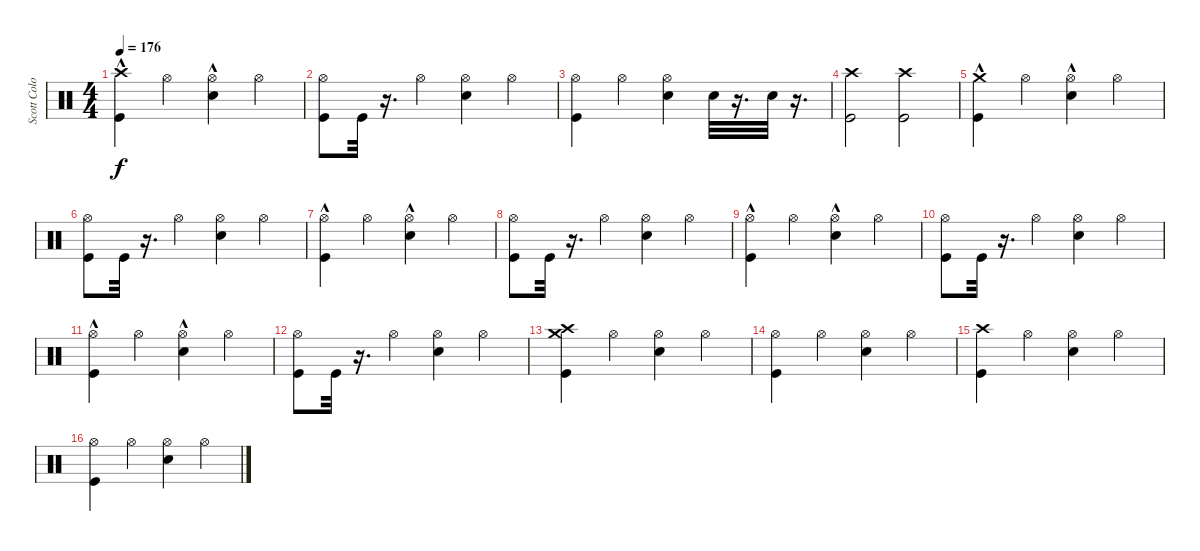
\track ("Scott Colombus" "Scott Colo") {instrument percussion}
\staff {score}
\articulation defaults
\ts (4 4)
\tempo 176
\clef neutral
\ks c
("Kick (hit)"{hac} "Crash high (hit)").4{dy f} "Hi-Hat (open)".4 ("Hi-Hat (open)" "Snare (hit) 2"{hac}).4 "Hi-Hat (open)".4 |
("Kick (hit)" "Hi-Hat (open)").8 "Kick (hit)".32 r.16{d} "Hi-Hat (open)".4 ("Hi-Hat (open)" "Snare (hit) 2").4 "Hi-Hat (open)".4 |
("Kick (hit)" "Hi-Hat (open)").4 "Hi-Hat (open)".4 ("Hi-Hat (open)" "Snare (hit) 2").4 "Snare (hit) 2".32 r.16{d} "Snare (hit) 2".32 r.16{d} |
("Crash high (hit)" "Kick (hit)").2 ("Crash high (hit)" "Kick (hit)").2 |
("Crash medium (hit)" "Kick (hit)"{hac}).4 "Hi-Hat (open)".4 ("Hi-Hat (open)" "Snare (hit) 2"{hac}).4 "Hi-Hat (open)".4 |
("Hi-Hat (open)" "Kick (hit)").8 "Kick (hit)".32 r.16{d} "Hi-Hat (open)".4 ("Hi-Hat (open)" "Snare (hit) 2").4 "Hi-Hat (open)".4 |
("Hi-Hat (open)" "Kick (hit)"{hac}).4 "Hi-Hat (open)".4 ("Hi-Hat (open)" "Snare (hit) 2"{hac}).4 "Hi-Hat (open)".4 |
("Hi-Hat (open)" "Kick (hit)").8 "Kick (hit)".32 r.16{d} "Hi-Hat (open)".4 ("Hi-Hat (open)" "Snare (hit) 2").4 "Hi-Hat (open)".4 |
("Hi-Hat (open)" "Kick (hit)"{hac}).4 "Hi-Hat (open)".4 ("Hi-Hat (open)" "Snare (hit) 2"{hac}).4 "Hi-Hat (open)".4 |
("Hi-Hat (open)" "Kick (hit)").8 "Kick (hit)".32 r.16{d} "Hi-Hat (open)".4 ("Hi-Hat (open)" "Snare (hit) 2").4 "Hi-Hat (open)".4 |
("Hi-Hat (open)" "Kick (hit)"{hac}).4 "Hi-Hat (open)".4 ("Hi-Hat (open)" "Snare (hit) 2"{hac}).4 "Hi-Hat (open)".4 |
("Hi-Hat (open)" "Kick (hit)").8 "Kick (hit)".32 r.16{d} "Hi-Hat (open)".4 ("Hi-Hat (open)" "Snare (hit) 2").4 "Hi-Hat (open)".4 |
("Crash medium (hit)" "Crash high (hit)" "Kick (hit)").4 "Hi-Hat (open)".4 ("Hi-Hat (open)" "Snare (hit) 2").4 "Hi-Hat (open)".4 |
("Hi-Hat (open)" "Kick (hit)").4 "Hi-Hat (open)".4 ("Hi-Hat (open)" "Snare (hit) 2").4 "Hi-Hat (open)".4 |
("Crash high (hit)" "Kick (hit)").4 "Hi-Hat (open)".4 ("Hi-Hat (open)" "Snare (hit) 2").4 "Hi-Hat (open)".4 |
("Hi-Hat (open)" "Kick (hit)").4 "Hi-Hat (open)".4 ("Hi-Hat (open)" "Snare (hit) 2").4 "Hi-Hat (open)".4
